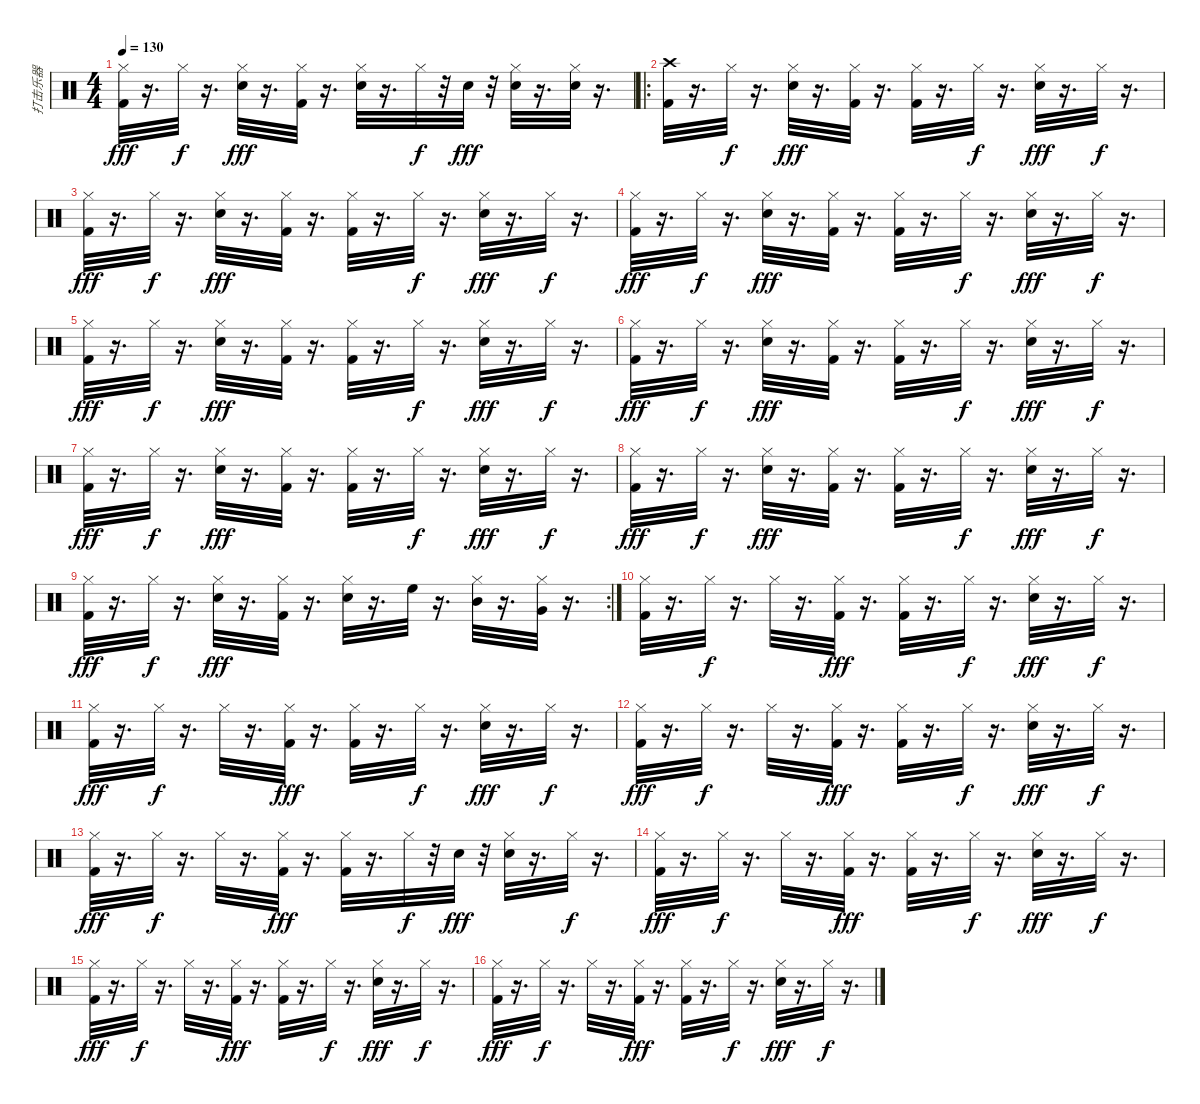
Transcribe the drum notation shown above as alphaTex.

\track ("打击乐器" "打击乐器") {instrument percussion}
\staff {score}
\articulation defaults
\ts (4 4)
\tempo 130
\clef neutral
\ks c
("Kick (hit) 2" "Hi-Hat (closed)").32{dy fff} r.16{d} "Hi-Hat (closed)".32{dy f} r.16{d} ("Hi-Hat (closed)" "Electric Snare (hit)").32{dy fff} r.16{d} ("Kick (hit) 2" "Hi-Hat (closed)").32 r.16{d} ("Electric Snare (hit)" "Hi-Hat (closed)").32 r.16{d} "Hi-Hat (closed)".32{dy f} r.32 "Electric Snare (hit)".32{dy fff} r.32 ("Hi-Hat (closed)" "Electric Snare (hit)").32 r.16{d} ("Hi-Hat (closed)" "Electric Snare (hit)").32 r.16{d} |
\ro
("Crash high (hit)" "Kick (hit) 2").32 r.16{d} "Hi-Hat (closed)".32{dy f} r.16{d} ("Hi-Hat (closed)" "Electric Snare (hit)").32{dy fff} r.16{d} ("Kick (hit) 2" "Hi-Hat (closed)").32 r.16{d} ("Kick (hit) 2" "Hi-Hat (closed)").32 r.16{d} "Hi-Hat (closed)".32{dy f} r.16{d} ("Hi-Hat (closed)" "Electric Snare (hit)").32{dy fff} r.16{d} "Hi-Hat (closed)".32{dy f} r.16{d} |
("Kick (hit) 2" "Hi-Hat (closed)").32{dy fff} r.16{d} "Hi-Hat (closed)".32{dy f} r.16{d} ("Hi-Hat (closed)" "Electric Snare (hit)").32{dy fff} r.16{d} ("Kick (hit) 2" "Hi-Hat (closed)").32 r.16{d} ("Kick (hit) 2" "Hi-Hat (closed)").32 r.16{d} "Hi-Hat (closed)".32{dy f} r.16{d} ("Hi-Hat (closed)" "Electric Snare (hit)").32{dy fff} r.16{d} "Hi-Hat (closed)".32{dy f} r.16{d} |
("Kick (hit) 2" "Hi-Hat (closed)").32{dy fff} r.16{d} "Hi-Hat (closed)".32{dy f} r.16{d} ("Hi-Hat (closed)" "Electric Snare (hit)").32{dy fff} r.16{d} ("Kick (hit) 2" "Hi-Hat (closed)").32 r.16{d} ("Kick (hit) 2" "Hi-Hat (closed)").32 r.16{d} "Hi-Hat (closed)".32{dy f} r.16{d} ("Hi-Hat (closed)" "Electric Snare (hit)").32{dy fff} r.16{d} "Hi-Hat (closed)".32{dy f} r.16{d} |
("Kick (hit) 2" "Hi-Hat (closed)").32{dy fff} r.16{d} "Hi-Hat (closed)".32{dy f} r.16{d} ("Hi-Hat (closed)" "Electric Snare (hit)").32{dy fff} r.16{d} ("Kick (hit) 2" "Hi-Hat (closed)").32 r.16{d} ("Kick (hit) 2" "Hi-Hat (closed)").32 r.16{d} "Hi-Hat (closed)".32{dy f} r.16{d} ("Hi-Hat (closed)" "Electric Snare (hit)").32{dy fff} r.16{d} "Hi-Hat (closed)".32{dy f} r.16{d} |
("Kick (hit) 2" "Hi-Hat (closed)").32{dy fff} r.16{d} "Hi-Hat (closed)".32{dy f} r.16{d} ("Hi-Hat (closed)" "Electric Snare (hit)").32{dy fff} r.16{d} ("Kick (hit) 2" "Hi-Hat (closed)").32 r.16{d} ("Kick (hit) 2" "Hi-Hat (closed)").32 r.16{d} "Hi-Hat (closed)".32{dy f} r.16{d} ("Hi-Hat (closed)" "Electric Snare (hit)").32{dy fff} r.16{d} "Hi-Hat (closed)".32{dy f} r.16{d} |
("Kick (hit) 2" "Hi-Hat (closed)").32{dy fff} r.16{d} "Hi-Hat (closed)".32{dy f} r.16{d} ("Hi-Hat (closed)" "Electric Snare (hit)").32{dy fff} r.16{d} ("Kick (hit) 2" "Hi-Hat (closed)").32 r.16{d} ("Kick (hit) 2" "Hi-Hat (closed)").32 r.16{d} "Hi-Hat (closed)".32{dy f} r.16{d} ("Hi-Hat (closed)" "Electric Snare (hit)").32{dy fff} r.16{d} "Hi-Hat (closed)".32{dy f} r.16{d} |
("Kick (hit) 2" "Hi-Hat (closed)").32{dy fff} r.16{d} "Hi-Hat (closed)".32{dy f} r.16{d} ("Hi-Hat (closed)" "Electric Snare (hit)").32{dy fff} r.16{d} ("Kick (hit) 2" "Hi-Hat (closed)").32 r.16{d} ("Kick (hit) 2" "Hi-Hat (closed)").32 r.16{d} "Hi-Hat (closed)".32{dy f} r.16{d} ("Hi-Hat (closed)" "Electric Snare (hit)").32{dy fff} r.16{d} "Hi-Hat (closed)".32{dy f} r.16{d} |
\rc 2
("Hi-Hat (closed)" "Kick (hit) 2").32{dy fff} r.16{d} "Hi-Hat (closed)".32{dy f} r.16{d} ("Hi-Hat (closed)" "Electric Snare (hit)").32{dy fff} r.16{d} ("Kick (hit) 2" "Hi-Hat (closed)").32 r.16{d} ("Electric Snare (hit)" "Hi-Hat (closed)").32 r.16{d} "High Floor Tom (hit)".32 r.16{d} ("Hi-Hat (closed)" "Mid Tom (hit)").32 r.16{d} ("Very Low Tom (hit)" "Hi-Hat (closed)").32 r.16{d} |
("Kick (hit) 2" "Hi-Hat (closed)").32 r.16{d} "Hi-Hat (closed)".32{dy f} r.16{d} "Hi-Hat (closed)".32 r.16{d} ("Kick (hit) 2" "Hi-Hat (closed)").32{dy fff} r.16{d} ("Kick (hit) 2" "Hi-Hat (closed)").32 r.16{d} "Hi-Hat (closed)".32{dy f} r.16{d} ("Hi-Hat (closed)" "Electric Snare (hit)").32{dy fff} r.16{d} "Hi-Hat (closed)".32{dy f} r.16{d} |
("Kick (hit) 2" "Hi-Hat (closed)").32{dy fff} r.16{d} "Hi-Hat (closed)".32{dy f} r.16{d} "Hi-Hat (closed)".32 r.16{d} ("Kick (hit) 2" "Hi-Hat (closed)").32{dy fff} r.16{d} ("Kick (hit) 2" "Hi-Hat (closed)").32 r.16{d} "Hi-Hat (closed)".32{dy f} r.16{d} ("Hi-Hat (closed)" "Electric Snare (hit)").32{dy fff} r.16{d} "Hi-Hat (closed)".32{dy f} r.16{d} |
("Kick (hit) 2" "Hi-Hat (closed)").32{dy fff} r.16{d} "Hi-Hat (closed)".32{dy f} r.16{d} "Hi-Hat (closed)".32 r.16{d} ("Kick (hit) 2" "Hi-Hat (closed)").32{dy fff} r.16{d} ("Kick (hit) 2" "Hi-Hat (closed)").32 r.16{d} "Hi-Hat (closed)".32{dy f} r.16{d} ("Hi-Hat (closed)" "Electric Snare (hit)").32{dy fff} r.16{d} "Hi-Hat (closed)".32{dy f} r.16{d} |
("Hi-Hat (closed)" "Kick (hit) 2").32{dy fff} r.16{d} "Hi-Hat (closed)".32{dy f} r.16{d} "Hi-Hat (closed)".32 r.16{d} ("Kick (hit) 2" "Hi-Hat (closed)").32{dy fff} r.16{d} ("Kick (hit) 2" "Hi-Hat (closed)").32 r.16{d} "Hi-Hat (closed)".32{dy f} r.32 "Electric Snare (hit)".32{dy fff} r.32 ("Electric Snare (hit)" "Hi-Hat (closed)").32 r.16{d} "Hi-Hat (closed)".32{dy f} r.16{d} |
("Hi-Hat (closed)" "Kick (hit) 2").32{dy fff} r.16{d} "Hi-Hat (closed)".32{dy f} r.16{d} "Hi-Hat (closed)".32 r.16{d} ("Kick (hit) 2" "Hi-Hat (closed)").32{dy fff} r.16{d} ("Kick (hit) 2" "Hi-Hat (closed)").32 r.16{d} "Hi-Hat (closed)".32{dy f} r.16{d} ("Hi-Hat (closed)" "Electric Snare (hit)").32{dy fff} r.16{d} "Hi-Hat (closed)".32{dy f} r.16{d} |
("Kick (hit) 2" "Hi-Hat (closed)").32{dy fff} r.16{d} "Hi-Hat (closed)".32{dy f} r.16{d} "Hi-Hat (closed)".32 r.16{d} ("Kick (hit) 2" "Hi-Hat (closed)").32{dy fff} r.16{d} ("Kick (hit) 2" "Hi-Hat (closed)").32 r.16{d} "Hi-Hat (closed)".32{dy f} r.16{d} ("Hi-Hat (closed)" "Electric Snare (hit)").32{dy fff} r.16{d} "Hi-Hat (closed)".32{dy f} r.16{d} |
("Hi-Hat (closed)" "Kick (hit) 2").32{dy fff} r.16{d} "Hi-Hat (closed)".32{dy f} r.16{d} "Hi-Hat (closed)".32 r.16{d} ("Kick (hit) 2" "Hi-Hat (closed)").32{dy fff} r.16{d} ("Kick (hit) 2" "Hi-Hat (closed)").32 r.16{d} "Hi-Hat (closed)".32{dy f} r.16{d} ("Hi-Hat (closed)" "Electric Snare (hit)").32{dy fff} r.16{d} "Hi-Hat (closed)".32{dy f} r.16{d}
